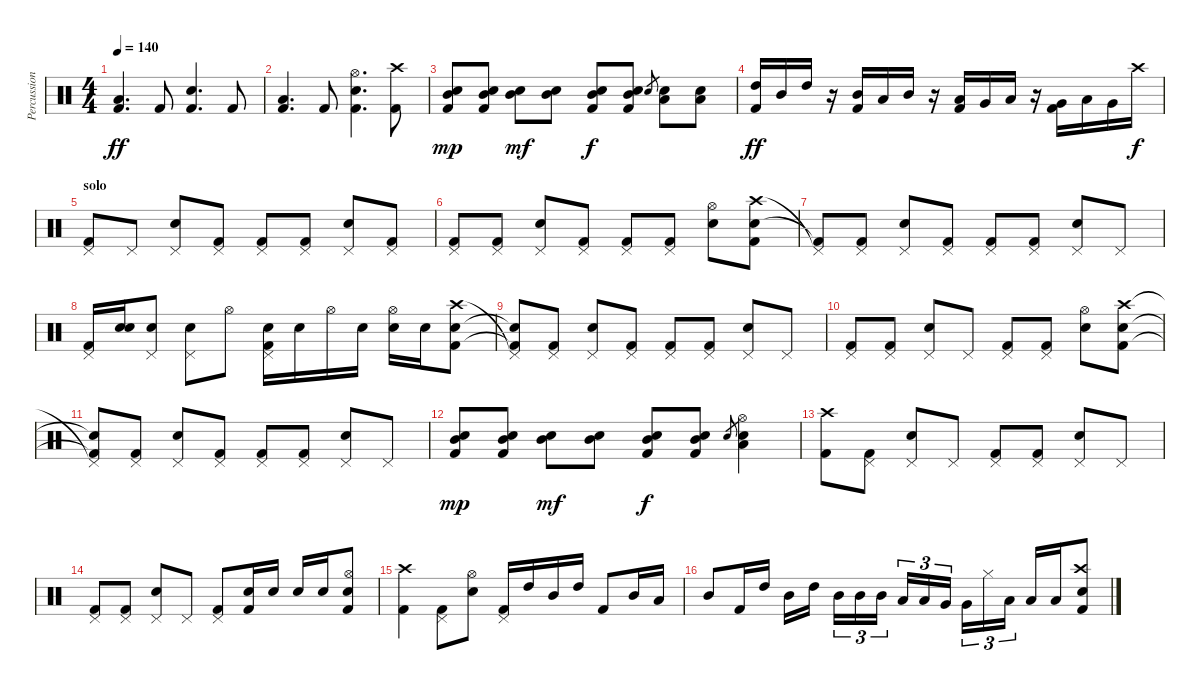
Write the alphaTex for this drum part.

\track ("Percussions" "Percussion") {instrument percussion}
\staff {score}
\articulation defaults
\ts (4 4)
\tempo 140
\clef neutral
\ks c
("Low Floor Tom (hit)" "Kick (hit) 2").4{d dy ff} "Kick (hit) 2".8 ("Snare (hit) 2" "Kick (hit) 2").4{d} "Kick (hit) 2".8 |
("Low Floor Tom (hit)" "Kick (hit) 2").4{d} "Kick (hit) 2".8 ("Hi-Hat (open)" "Snare (hit) 2" "Kick (hit) 2").4{d} ("Crash high (hit)" "Kick (hit) 2").8 |
("Mid Tom (hit)" "Snare (hit) 2" "Kick (hit) 2").8{dy mp} ("Mid Tom (hit)" "Snare (hit) 2" "Kick (hit) 2").8 ("Mid Tom (hit)" "Snare (hit) 2").8{dy mf} ("Mid Tom (hit)" "Snare (hit) 2").8 ("Mid Tom (hit)" "Snare (hit) 2" "Kick (hit) 2").8{dy f} ("Mid Tom (hit)" "Snare (hit) 2" "Kick (hit) 2").8 "Snare (hit) 2".8{gr} ("Low Tom (hit)" "Electric Snare (hit)").8 ("Low Tom (hit)" "Electric Snare (hit)").8 |
("High Tom (hit)" "Kick (hit) 2").16{dy ff} "Mid Tom (hit)".16 "High Tom (hit)".16 r.16 ("Mid Tom (hit)" "Kick (hit) 2").16 "Low Tom (hit)".16 "Mid Tom (hit)".16 r.16 ("Low Tom (hit)" "Kick (hit) 2").16 "Very Low Tom (hit)".16 "Low Tom (hit)".16 r.16 ("Very Low Tom (hit)" "Kick (hit) 2").16 "Low Floor Tom (hit)".16 "Very Low Tom (hit)".16 "Crash high (hit)".16{dy f} |
\section ("" "solo")
("Pedal Hi-Hat (hit)" "Kick (hit) 2").8 "Pedal Hi-Hat (hit)".8 ("Pedal Hi-Hat (hit)" "Snare (hit) 2").8 ("Pedal Hi-Hat (hit)" "Kick (hit) 2").8 ("Pedal Hi-Hat (hit)" "Kick (hit) 2").8 ("Pedal Hi-Hat (hit)" "Kick (hit) 2").8 ("Pedal Hi-Hat (hit)" "Snare (hit) 2").8 ("Pedal Hi-Hat (hit)" "Kick (hit) 2").8 |
("Pedal Hi-Hat (hit)" "Kick (hit) 2").8 ("Pedal Hi-Hat (hit)" "Kick (hit) 2").8 ("Pedal Hi-Hat (hit)" "Snare (hit) 2").8 ("Pedal Hi-Hat (hit)" "Kick (hit) 2").8 ("Pedal Hi-Hat (hit)" "Kick (hit) 2").8 ("Pedal Hi-Hat (hit)" "Kick (hit) 2").8 ("Hi-Hat (open)" "Snare (hit) 2").8 ("Crash high (hit)" "Electric Snare (hit)" "Kick (hit) 2").8 |
("Pedal Hi-Hat (hit)"{t} "Kick (hit) 2"{t}).8 ("Pedal Hi-Hat (hit)" "Kick (hit) 2").8 ("Pedal Hi-Hat (hit)" "Snare (hit) 2").8 ("Pedal Hi-Hat (hit)" "Kick (hit) 2").8 ("Pedal Hi-Hat (hit)" "Kick (hit) 2").8 ("Pedal Hi-Hat (hit)" "Kick (hit) 2").8 ("Pedal Hi-Hat (hit)" "Snare (hit) 2").8 "Pedal Hi-Hat (hit)".8 |
("Pedal Hi-Hat (hit)" "Kick (hit) 2").16 ("Snare (hit) 2" "Snare (hit) 2").16 ("Pedal Hi-Hat (hit)" "Electric Snare (hit)").8 ("Pedal Hi-Hat (hit)" "Electric Snare (hit)").8 "Hi-Hat (open)".8 ("Pedal Hi-Hat (hit)" "Electric Snare (hit)" "Kick (hit) 2").16 "Electric Snare (hit)".16 "Hi-Hat (open)".16 "Electric Snare (hit)".16 ("Hi-Hat (open)" "Electric Snare (hit)").16 "Snare (hit) 2".16 ("Crash high (hit)" "Electric Snare (hit)" "Kick (hit) 2").8 |
("Pedal Hi-Hat (hit)"{t} "Snare (hit)"{t} "Kick (hit) 2"{t}).8 ("Pedal Hi-Hat (hit)" "Kick (hit) 2").8 ("Pedal Hi-Hat (hit)" "Snare (hit) 2").8 ("Pedal Hi-Hat (hit)" "Kick (hit) 2").8 ("Pedal Hi-Hat (hit)" "Kick (hit) 2").8 ("Pedal Hi-Hat (hit)" "Kick (hit) 2").8 ("Pedal Hi-Hat (hit)" "Snare (hit) 2").8 "Pedal Hi-Hat (hit)".8 |
("Pedal Hi-Hat (hit)" "Kick (hit) 2").8 ("Pedal Hi-Hat (hit)" "Kick (hit) 2").8 ("Pedal Hi-Hat (hit)" "Snare (hit) 2").8 "Pedal Hi-Hat (hit)".8 ("Pedal Hi-Hat (hit)" "Kick (hit) 2").8 ("Pedal Hi-Hat (hit)" "Kick (hit) 2").8 ("Hi-Hat (open)" "Snare (hit) 2").8 ("Crash high (hit)" "Electric Snare (hit)" "Kick (hit) 2").8 |
("Pedal Hi-Hat (hit)"{t} "Snare (hit)"{t} "Kick (hit) 2"{t}).8 ("Pedal Hi-Hat (hit)" "Kick (hit) 2").8 ("Pedal Hi-Hat (hit)" "Snare (hit) 2").8 ("Pedal Hi-Hat (hit)" "Kick (hit) 2").8 ("Pedal Hi-Hat (hit)" "Kick (hit) 2").8 ("Pedal Hi-Hat (hit)" "Kick (hit) 2").8 ("Pedal Hi-Hat (hit)" "Snare (hit) 2").8 "Pedal Hi-Hat (hit)".8 |
("Mid Tom (hit)" "Snare (hit) 2" "Kick (hit) 2").8{dy mp} ("Mid Tom (hit)" "Snare (hit) 2" "Kick (hit) 2").8 ("Mid Tom (hit)" "Snare (hit) 2").8{dy mf} ("Mid Tom (hit)" "Snare (hit) 2").8 ("Mid Tom (hit)" "Snare (hit) 2" "Kick (hit) 2").8{dy f} ("Mid Tom (hit)" "Snare (hit) 2" "Kick (hit) 2").8 "Snare (hit) 2".8{gr} ("Hi-Hat (open)" "Low Tom (hit)" "Electric Snare (hit)").4 |
("Crash high (hit)" "Kick (hit) 2").8 ("Pedal Hi-Hat (hit)" "Kick (hit) 2").8 ("Pedal Hi-Hat (hit)" "Snare (hit) 2").8 "Pedal Hi-Hat (hit)".8 ("Pedal Hi-Hat (hit)" "Kick (hit) 2").8 ("Pedal Hi-Hat (hit)" "Kick (hit) 2").8 ("Pedal Hi-Hat (hit)" "Snare (hit) 2").8 "Pedal Hi-Hat (hit)".8 |
("Pedal Hi-Hat (hit)" "Kick (hit) 2").8 ("Pedal Hi-Hat (hit)" "Kick (hit) 2").8 ("Pedal Hi-Hat (hit)" "Snare (hit) 2").8 "Pedal Hi-Hat (hit)".8 ("Pedal Hi-Hat (hit)" "Kick (hit) 2").8 ("Electric Snare (hit)" "Kick (hit) 2").16 "Snare (hit) 2".16 "Electric Snare (hit)".16 "Electric Snare (hit)".16 ("Hi-Hat (open)" "Electric Snare (hit)" "Kick (hit) 2").8 |
("Crash high (hit)" "Kick (hit) 2").4 ("Pedal Hi-Hat (hit)" "Kick (hit) 2").8 ("Hi-Hat (open)" "Snare (hit) 2").8 ("Pedal Hi-Hat (hit)" "Kick (hit) 2").16 "High Tom (hit)".16 "Mid Tom (hit)".16 "High Tom (hit)".16 "Kick (hit) 2".8 "Mid Tom (hit)".16 "Low Tom (hit)".16 |
"Mid Tom (hit)".8 "Kick (hit) 2".16 "High Tom (hit)".16 "Mid Tom (hit)".16 "High Tom (hit)".16 "Mid Tom (hit)".16{tu (3 2)} "Mid Tom (hit)".16{tu (3 2)} "Mid Tom (hit)".16{tu (3 2)} "Low Tom (hit)".16{tu (3 2)} "Low Tom (hit)".16{tu (3 2)} "Very Low Tom (hit)".16{tu (3 2)} "Very Low Tom (hit)".16{tu (3 2)} "Hi-Hat (closed)".16{tu (3 2)} "Low Floor Tom (hit)".16{tu (3 2)} "Low Floor Tom (hit)".16 "Low Floor Tom (hit)".16 ("Crash high (hit)" "Electric Snare (hit)" "Kick (hit) 2").8
